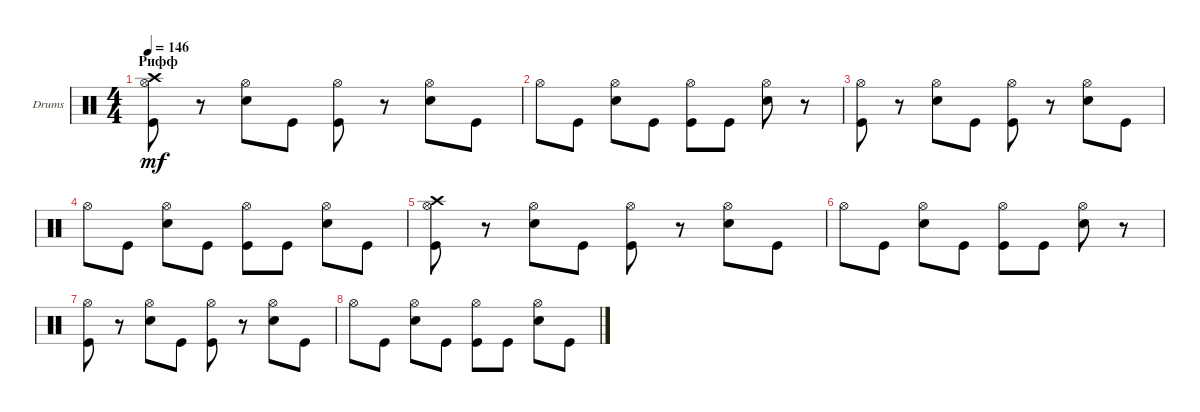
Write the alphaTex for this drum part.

\defaultSystemsLayout 4
\bracketExtendMode groupsimilarinstruments
\firstSystemTrackNameOrientation horizontal
\otherSystemsTrackNameOrientation horizontal
\track ("Drumkit" "Drums") {instrument percussion}
\staff {score}
\articulation defaults
\ts (4 4)
\section ("" "Рифф")
\tempo 146
\clef neutral
\ks c
("Kick (hit)" "Hi-Hat (open)" "Crash high (hit)").8{dy mf} r.8 ("Snare (hit) 2" "Hi-Hat (open)").8 "Kick (hit)".8 ("Kick (hit)" "Hi-Hat (open)").8 r.8 ("Snare (hit) 2" "Hi-Hat (open)").8 "Kick (hit)".8 |
"Hi-Hat (open)".8 "Kick (hit)".8 ("Snare (hit) 2" "Hi-Hat (open)").8 "Kick (hit)".8 ("Hi-Hat (open)" "Kick (hit)").8 "Kick (hit)".8 ("Snare (hit) 2" "Hi-Hat (open)").8 r.8 |
("Kick (hit)" "Hi-Hat (open)").8 r.8 ("Snare (hit) 2" "Hi-Hat (open)").8 "Kick (hit)".8 ("Kick (hit)" "Hi-Hat (open)").8 r.8 ("Snare (hit) 2" "Hi-Hat (open)").8 "Kick (hit)".8 |
"Hi-Hat (open)".8 "Kick (hit)".8 ("Snare (hit) 2" "Hi-Hat (open)").8 "Kick (hit)".8 ("Hi-Hat (open)" "Kick (hit)").8 "Kick (hit)".8 ("Snare (hit) 2" "Hi-Hat (open)").8 "Kick (hit)".8 |
("Kick (hit)" "Hi-Hat (open)" "Crash high (hit)").8 r.8 ("Snare (hit) 2" "Hi-Hat (open)").8 "Kick (hit)".8 ("Kick (hit)" "Hi-Hat (open)").8 r.8 ("Snare (hit) 2" "Hi-Hat (open)").8 "Kick (hit)".8 |
"Hi-Hat (open)".8 "Kick (hit)".8 ("Snare (hit) 2" "Hi-Hat (open)").8 "Kick (hit)".8 ("Hi-Hat (open)" "Kick (hit)").8 "Kick (hit)".8 ("Snare (hit) 2" "Hi-Hat (open)").8 r.8 |
("Kick (hit)" "Hi-Hat (open)").8 r.8 ("Snare (hit) 2" "Hi-Hat (open)").8 "Kick (hit)".8 ("Kick (hit)" "Hi-Hat (open)").8 r.8 ("Snare (hit) 2" "Hi-Hat (open)").8 "Kick (hit)".8 |
"Hi-Hat (open)".8 "Kick (hit)".8 ("Snare (hit) 2" "Hi-Hat (open)").8 "Kick (hit)".8 ("Hi-Hat (open)" "Kick (hit)").8 "Kick (hit)".8 ("Snare (hit) 2" "Hi-Hat (open)").8 "Kick (hit)".8
